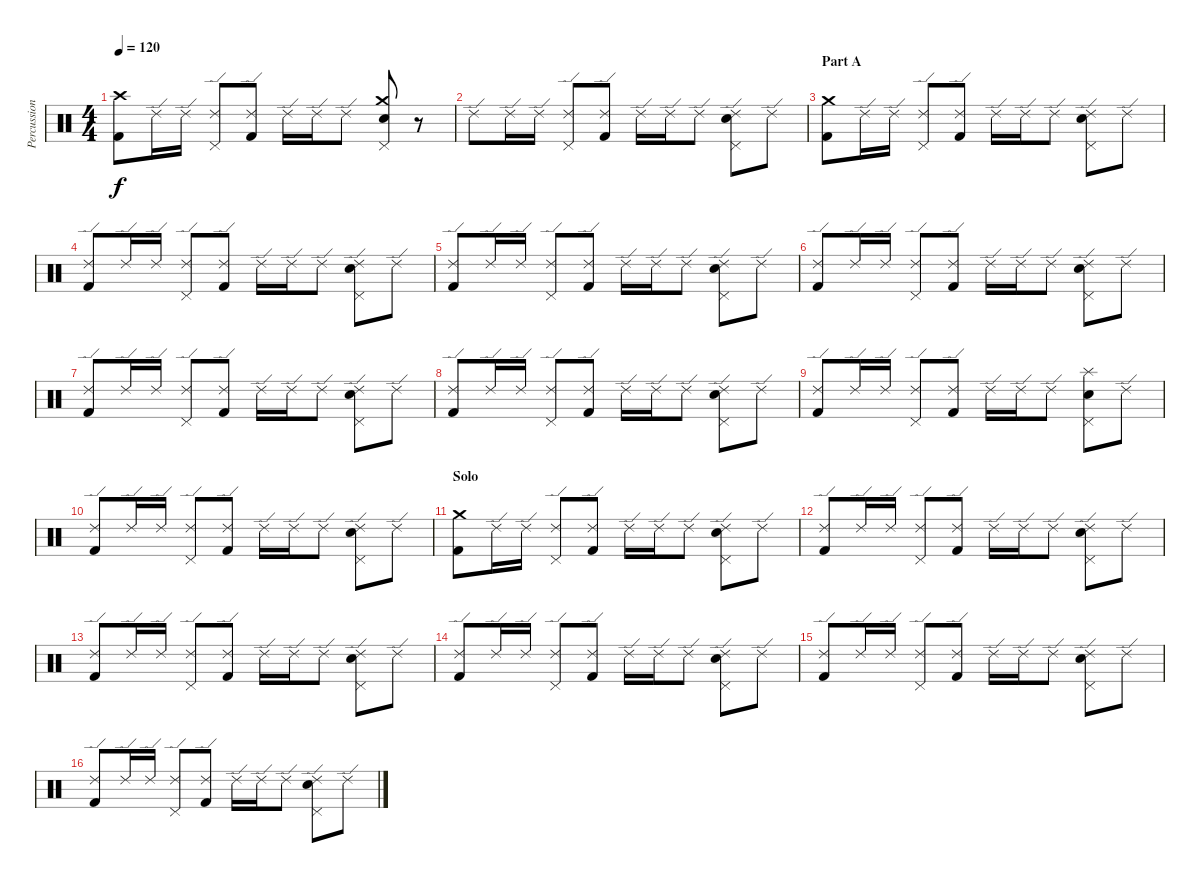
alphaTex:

\track ("Percussion" "Percussion") {instrument percussion}
\staff {score}
\articulation defaults
\ts (4 4)
\tempo 120
\clef neutral
\ks c
("Crash high (hit)" "Kick (hit) 2").8{dy f} "Ride (edge) 2".16 "Ride (edge) 2".16 ("Ride (edge) 2" "Pedal Hi-Hat (hit)").8 ("Ride (edge) 2" "Kick (hit) 2").8 "Ride (edge) 2".16 "Ride (edge) 2".16 "Ride (edge) 2".8 ("Crash medium (hit)" "Pedal Hi-Hat (hit)" "Snare (hit) 2").8 r.8 |
"Ride (edge) 2".8 "Ride (edge) 2".16 "Ride (edge) 2".16 ("Ride (edge) 2" "Pedal Hi-Hat (hit)").8 ("Ride (edge) 2" "Kick (hit) 2").8 "Ride (edge) 2".16 "Ride (edge) 2".16 "Ride (edge) 2".8 ("Ride (edge) 2" "Pedal Hi-Hat (hit)" "Snare (hit) 2").8 "Ride (edge) 2".8 |
\section ("" "Part A")
("Crash medium (hit)" "Kick (hit) 2").8 "Ride (edge) 2".16 "Ride (edge) 2".16 ("Ride (edge) 2" "Pedal Hi-Hat (hit)").8 ("Ride (edge) 2" "Kick (hit) 2").8 "Ride (edge) 2".16 "Ride (edge) 2".16 "Ride (edge) 2".8 ("Ride (edge) 2" "Pedal Hi-Hat (hit)" "Snare (hit) 2").8 "Ride (edge) 2".8 |
("Ride (edge) 2" "Kick (hit) 2").8 "Ride (edge) 2".16 "Ride (edge) 2".16 ("Ride (edge) 2" "Pedal Hi-Hat (hit)").8 ("Ride (edge) 2" "Kick (hit) 2").8 "Ride (edge) 2".16 "Ride (edge) 2".16 "Ride (edge) 2".8 ("Ride (edge) 2" "Pedal Hi-Hat (hit)" "Snare (hit) 2").8 "Ride (edge) 2".8 |
("Ride (edge) 2" "Kick (hit) 2").8 "Ride (edge) 2".16 "Ride (edge) 2".16 ("Ride (edge) 2" "Pedal Hi-Hat (hit)").8 ("Ride (edge) 2" "Kick (hit) 2").8 "Ride (edge) 2".16 "Ride (edge) 2".16 "Ride (edge) 2".8 ("Ride (edge) 2" "Pedal Hi-Hat (hit)" "Snare (hit) 2").8 "Ride (edge) 2".8 |
("Ride (edge) 2" "Kick (hit) 2").8 "Ride (edge) 2".16 "Ride (edge) 2".16 ("Ride (edge) 2" "Pedal Hi-Hat (hit)").8 ("Ride (edge) 2" "Kick (hit) 2").8 "Ride (edge) 2".16 "Ride (edge) 2".16 "Ride (edge) 2".8 ("Ride (edge) 2" "Pedal Hi-Hat (hit)" "Snare (hit) 2").8 "Ride (edge) 2".8 |
("Ride (edge) 2" "Kick (hit) 2").8 "Ride (edge) 2".16 "Ride (edge) 2".16 ("Ride (edge) 2" "Pedal Hi-Hat (hit)").8 ("Ride (edge) 2" "Kick (hit) 2").8 "Ride (edge) 2".16 "Ride (edge) 2".16 "Ride (edge) 2".8 ("Ride (edge) 2" "Pedal Hi-Hat (hit)" "Snare (hit) 2").8 "Ride (edge) 2".8 |
("Ride (edge) 2" "Kick (hit) 2").8 "Ride (edge) 2".16 "Ride (edge) 2".16 ("Ride (edge) 2" "Pedal Hi-Hat (hit)").8 ("Ride (edge) 2" "Kick (hit) 2").8 "Ride (edge) 2".16 "Ride (edge) 2".16 "Ride (edge) 2".8 ("Ride (edge) 2" "Pedal Hi-Hat (hit)" "Snare (hit) 2").8 "Ride (edge) 2".8 |
("Ride (edge) 2" "Kick (hit) 2").8 "Ride (edge) 2".16 "Ride (edge) 2".16 ("Ride (edge) 2" "Pedal Hi-Hat (hit)").8 ("Ride (edge) 2" "Kick (hit) 2").8 "Ride (edge) 2".16 "Ride (edge) 2".16 "Ride (edge) 2".8 ("Splash (hit)" "Pedal Hi-Hat (hit)" "Snare (hit) 2").8 "Ride (edge) 2".8 |
("Ride (edge) 2" "Kick (hit) 2").8 "Ride (edge) 2".16 "Ride (edge) 2".16 ("Ride (edge) 2" "Pedal Hi-Hat (hit)").8 ("Ride (edge) 2" "Kick (hit) 2").8 "Ride (edge) 2".16 "Ride (edge) 2".16 "Ride (edge) 2".8 ("Ride (edge) 2" "Pedal Hi-Hat (hit)" "Snare (hit) 2").8 "Ride (edge) 2".8 |
\section ("" "Solo")
("Crash medium (hit)" "Kick (hit) 2").8 "Ride (edge) 2".16 "Ride (edge) 2".16 ("Ride (edge) 2" "Pedal Hi-Hat (hit)").8 ("Ride (edge) 2" "Kick (hit) 2").8 "Ride (edge) 2".16 "Ride (edge) 2".16 "Ride (edge) 2".8 ("Ride (edge) 2" "Pedal Hi-Hat (hit)" "Snare (hit) 2").8 "Ride (edge) 2".8 |
("Ride (edge) 2" "Kick (hit) 2").8 "Ride (edge) 2".16 "Ride (edge) 2".16 ("Ride (edge) 2" "Pedal Hi-Hat (hit)").8 ("Ride (edge) 2" "Kick (hit) 2").8 "Ride (edge) 2".16 "Ride (edge) 2".16 "Ride (edge) 2".8 ("Ride (edge) 2" "Pedal Hi-Hat (hit)" "Snare (hit) 2").8 "Ride (edge) 2".8 |
("Ride (edge) 2" "Kick (hit) 2").8 "Ride (edge) 2".16 "Ride (edge) 2".16 ("Ride (edge) 2" "Pedal Hi-Hat (hit)").8 ("Ride (edge) 2" "Kick (hit) 2").8 "Ride (edge) 2".16 "Ride (edge) 2".16 "Ride (edge) 2".8 ("Ride (edge) 2" "Pedal Hi-Hat (hit)" "Snare (hit) 2").8 "Ride (edge) 2".8 |
("Ride (edge) 2" "Kick (hit) 2").8 "Ride (edge) 2".16 "Ride (edge) 2".16 ("Ride (edge) 2" "Pedal Hi-Hat (hit)").8 ("Ride (edge) 2" "Kick (hit) 2").8 "Ride (edge) 2".16 "Ride (edge) 2".16 "Ride (edge) 2".8 ("Ride (edge) 2" "Pedal Hi-Hat (hit)" "Snare (hit) 2").8 "Ride (edge) 2".8 |
("Ride (edge) 2" "Kick (hit) 2").8 "Ride (edge) 2".16 "Ride (edge) 2".16 ("Ride (edge) 2" "Pedal Hi-Hat (hit)").8 ("Ride (edge) 2" "Kick (hit) 2").8 "Ride (edge) 2".16 "Ride (edge) 2".16 "Ride (edge) 2".8 ("Ride (edge) 2" "Pedal Hi-Hat (hit)" "Snare (hit) 2").8 "Ride (edge) 2".8 |
("Ride (edge) 2" "Kick (hit) 2").8 "Ride (edge) 2".16 "Ride (edge) 2".16 ("Ride (edge) 2" "Pedal Hi-Hat (hit)").8 ("Ride (edge) 2" "Kick (hit) 2").8 "Ride (edge) 2".16 "Ride (edge) 2".16 "Ride (edge) 2".8 ("Ride (edge) 2" "Pedal Hi-Hat (hit)" "Snare (hit) 2").8 "Ride (edge) 2".8
